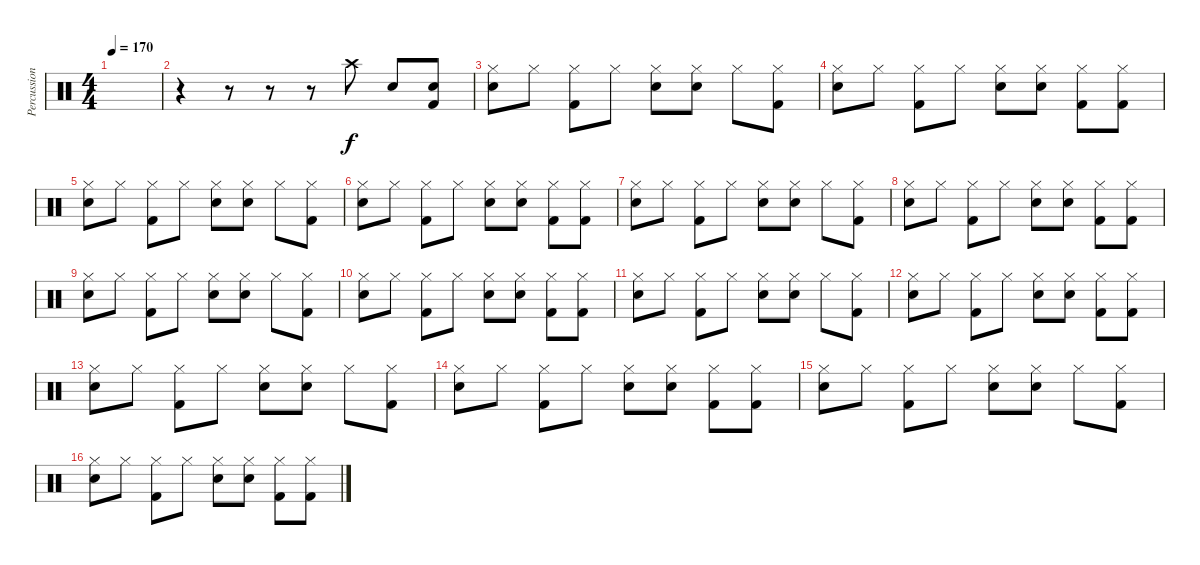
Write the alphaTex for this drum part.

\track ("Percussions" "Percussion") {instrument percussion}
\staff {score}
\articulation defaults
\ts (4 4)
\tempo 170
\clef neutral
\ks c
|
r.4 r.8 r.8 r.8 "Crash high (hit)".8 "Snare (hit) 2".8 ("Snare (hit) 2" "Kick (hit) 2").8 |
("Hi-Hat (closed)" "Snare (hit) 2").8 "Hi-Hat (closed)".8 ("Hi-Hat (closed)" "Kick (hit) 2").8 "Hi-Hat (closed)".8 ("Hi-Hat (closed)" "Snare (hit) 2").8 ("Hi-Hat (closed)" "Snare (hit) 2").8 "Hi-Hat (closed)".8 ("Hi-Hat (closed)" "Kick (hit) 2").8 |
("Hi-Hat (closed)" "Snare (hit) 2").8 "Hi-Hat (closed)".8 ("Hi-Hat (closed)" "Kick (hit) 2").8 "Hi-Hat (closed)".8 ("Hi-Hat (closed)" "Snare (hit) 2").8 ("Hi-Hat (closed)" "Snare (hit) 2").8 ("Hi-Hat (closed)" "Kick (hit) 2").8 ("Hi-Hat (closed)" "Kick (hit) 2").8 |
("Hi-Hat (closed)" "Snare (hit) 2").8 "Hi-Hat (closed)".8 ("Hi-Hat (closed)" "Kick (hit) 2").8 "Hi-Hat (closed)".8 ("Hi-Hat (closed)" "Snare (hit) 2").8 ("Hi-Hat (closed)" "Snare (hit) 2").8 "Hi-Hat (closed)".8 ("Hi-Hat (closed)" "Kick (hit) 2").8 |
("Hi-Hat (closed)" "Snare (hit) 2").8 "Hi-Hat (closed)".8 ("Hi-Hat (closed)" "Kick (hit) 2").8 "Hi-Hat (closed)".8 ("Hi-Hat (closed)" "Snare (hit) 2").8 ("Hi-Hat (closed)" "Snare (hit) 2").8 ("Hi-Hat (closed)" "Kick (hit) 2").8 ("Hi-Hat (closed)" "Kick (hit) 2").8 |
("Hi-Hat (closed)" "Snare (hit) 2").8 "Hi-Hat (closed)".8 ("Hi-Hat (closed)" "Kick (hit) 2").8 "Hi-Hat (closed)".8 ("Hi-Hat (closed)" "Snare (hit) 2").8 ("Hi-Hat (closed)" "Snare (hit) 2").8 "Hi-Hat (closed)".8 ("Hi-Hat (closed)" "Kick (hit) 2").8 |
("Hi-Hat (closed)" "Snare (hit) 2").8 "Hi-Hat (closed)".8 ("Hi-Hat (closed)" "Kick (hit) 2").8 "Hi-Hat (closed)".8 ("Hi-Hat (closed)" "Snare (hit) 2").8 ("Hi-Hat (closed)" "Snare (hit) 2").8 ("Hi-Hat (closed)" "Kick (hit) 2").8 ("Hi-Hat (closed)" "Kick (hit) 2").8 |
("Hi-Hat (closed)" "Snare (hit) 2").8 "Hi-Hat (closed)".8 ("Hi-Hat (closed)" "Kick (hit) 2").8 "Hi-Hat (closed)".8 ("Hi-Hat (closed)" "Snare (hit) 2").8 ("Hi-Hat (closed)" "Snare (hit) 2").8 "Hi-Hat (closed)".8 ("Hi-Hat (closed)" "Kick (hit) 2").8 |
("Hi-Hat (closed)" "Snare (hit) 2").8 "Hi-Hat (closed)".8 ("Hi-Hat (closed)" "Kick (hit) 2").8 "Hi-Hat (closed)".8 ("Hi-Hat (closed)" "Snare (hit) 2").8 ("Hi-Hat (closed)" "Snare (hit) 2").8 ("Hi-Hat (closed)" "Kick (hit) 2").8 ("Hi-Hat (closed)" "Kick (hit) 2").8 |
("Hi-Hat (closed)" "Snare (hit) 2").8 "Hi-Hat (closed)".8 ("Hi-Hat (closed)" "Kick (hit) 2").8 "Hi-Hat (closed)".8 ("Hi-Hat (closed)" "Snare (hit) 2").8 ("Hi-Hat (closed)" "Snare (hit) 2").8 "Hi-Hat (closed)".8 ("Hi-Hat (closed)" "Kick (hit) 2").8 |
("Hi-Hat (closed)" "Snare (hit) 2").8 "Hi-Hat (closed)".8 ("Hi-Hat (closed)" "Kick (hit) 2").8 "Hi-Hat (closed)".8 ("Hi-Hat (closed)" "Snare (hit) 2").8 ("Hi-Hat (closed)" "Snare (hit) 2").8 ("Hi-Hat (closed)" "Kick (hit) 2").8 ("Hi-Hat (closed)" "Kick (hit) 2").8 |
("Hi-Hat (closed)" "Snare (hit) 2").8 "Hi-Hat (closed)".8 ("Hi-Hat (closed)" "Kick (hit) 2").8 "Hi-Hat (closed)".8 ("Hi-Hat (closed)" "Snare (hit) 2").8 ("Hi-Hat (closed)" "Snare (hit) 2").8 "Hi-Hat (closed)".8 ("Hi-Hat (closed)" "Kick (hit) 2").8 |
("Hi-Hat (closed)" "Snare (hit) 2").8 "Hi-Hat (closed)".8 ("Hi-Hat (closed)" "Kick (hit) 2").8 "Hi-Hat (closed)".8 ("Hi-Hat (closed)" "Snare (hit) 2").8 ("Hi-Hat (closed)" "Snare (hit) 2").8 ("Hi-Hat (closed)" "Kick (hit) 2").8 ("Hi-Hat (closed)" "Kick (hit) 2").8 |
("Hi-Hat (closed)" "Snare (hit) 2").8 "Hi-Hat (closed)".8 ("Hi-Hat (closed)" "Kick (hit) 2").8 "Hi-Hat (closed)".8 ("Hi-Hat (closed)" "Snare (hit) 2").8 ("Hi-Hat (closed)" "Snare (hit) 2").8 "Hi-Hat (closed)".8 ("Hi-Hat (closed)" "Kick (hit) 2").8 |
("Hi-Hat (closed)" "Snare (hit) 2").8 "Hi-Hat (closed)".8 ("Hi-Hat (closed)" "Kick (hit) 2").8 "Hi-Hat (closed)".8 ("Hi-Hat (closed)" "Snare (hit) 2").8 ("Hi-Hat (closed)" "Snare (hit) 2").8 ("Hi-Hat (closed)" "Kick (hit) 2").8 ("Hi-Hat (closed)" "Kick (hit) 2").8
